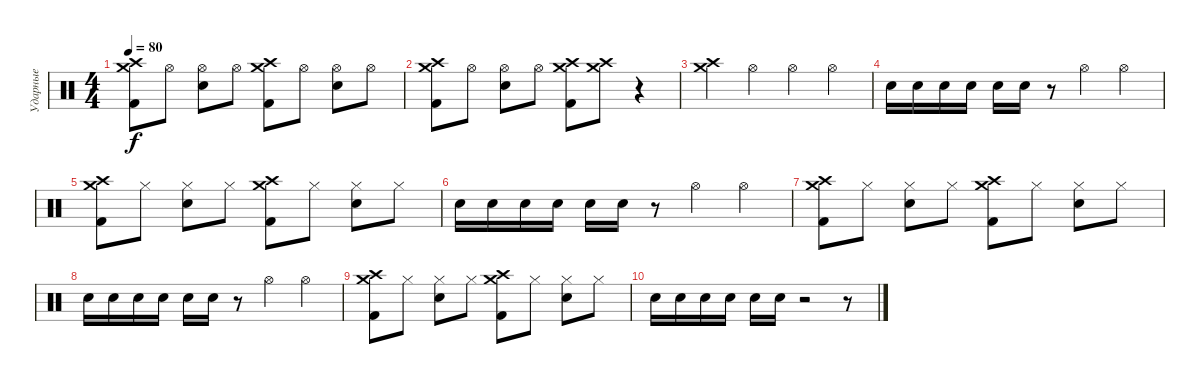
\track ("Ударные" "Ударные") {instrument percussion}
\staff {score}
\articulation defaults
\ts (4 4)
\tempo 80
\clef neutral
\ks c
("Crash high (hit)" "Crash medium (hit)" "Kick (hit) 2").8{dy f} "Hi-Hat (open)".8 ("Hi-Hat (open)" "Snare (hit) 2").8 "Hi-Hat (open)".8 ("Crash high (hit)" "Crash medium (hit)" "Kick (hit) 2").8 "Hi-Hat (open)".8 ("Hi-Hat (open)" "Snare (hit) 2").8 "Hi-Hat (open)".8 |
("Crash high (hit)" "Crash medium (hit)" "Kick (hit) 2").8 "Hi-Hat (open)".8 ("Hi-Hat (open)" "Snare (hit) 2").8 "Hi-Hat (open)".8 ("Crash high (hit)" "Crash medium (hit)" "Kick (hit) 2").8 ("Crash high (hit)" "Crash medium (hit)").8 r.4 |
("Crash high (hit)" "Crash medium (hit)").4 "Hi-Hat (open)".4 "Hi-Hat (open)".4 "Hi-Hat (open)".4 |
"Snare (hit) 2".16 "Snare (hit) 2".16 "Snare (hit) 2".16 "Snare (hit) 2".16 "Snare (hit) 2".16 "Snare (hit) 2".16 r.8 "Hi-Hat (open)".4 "Hi-Hat (open)".4 |
("Crash high (hit)" "Crash medium (hit)" "Kick (hit) 2").8 "Hi-Hat (closed)".8 ("Hi-Hat (closed)" "Snare (hit) 2").8 "Hi-Hat (closed)".8 ("Crash high (hit)" "Crash medium (hit)" "Kick (hit) 2").8 "Hi-Hat (closed)".8 ("Hi-Hat (closed)" "Snare (hit) 2").8 "Hi-Hat (closed)".8 |
"Snare (hit) 2".16 "Snare (hit) 2".16 "Snare (hit) 2".16 "Snare (hit) 2".16 "Snare (hit) 2".16 "Snare (hit) 2".16 r.8 "Hi-Hat (open)".4 "Hi-Hat (open)".4 |
("Crash high (hit)" "Crash medium (hit)" "Kick (hit) 2").8 "Hi-Hat (closed)".8 ("Hi-Hat (closed)" "Snare (hit) 2").8 "Hi-Hat (closed)".8 ("Crash high (hit)" "Crash medium (hit)" "Kick (hit) 2").8 "Hi-Hat (closed)".8 ("Hi-Hat (closed)" "Snare (hit) 2").8 "Hi-Hat (closed)".8 |
"Snare (hit) 2".16 "Snare (hit) 2".16 "Snare (hit) 2".16 "Snare (hit) 2".16 "Snare (hit) 2".16 "Snare (hit) 2".16 r.8 "Hi-Hat (open)".4 "Hi-Hat (open)".4 |
("Crash high (hit)" "Crash medium (hit)" "Kick (hit) 2").8 "Hi-Hat (closed)".8 ("Hi-Hat (closed)" "Snare (hit) 2").8 "Hi-Hat (closed)".8 ("Crash high (hit)" "Crash medium (hit)" "Kick (hit) 2").8 "Hi-Hat (closed)".8 ("Hi-Hat (closed)" "Snare (hit) 2").8 "Hi-Hat (closed)".8 |
"Snare (hit) 2".16 "Snare (hit) 2".16 "Snare (hit) 2".16 "Snare (hit) 2".16 "Snare (hit) 2".16 "Snare (hit) 2".16 r.2 r.8
